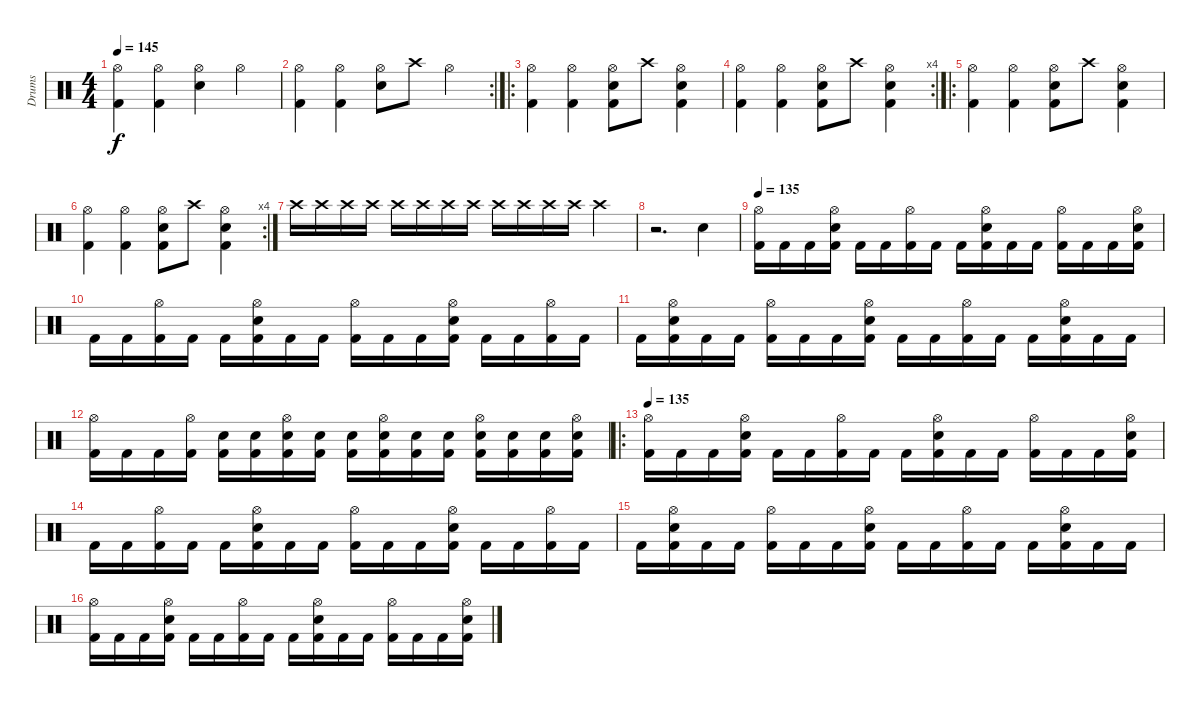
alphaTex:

\track ("Drums" "Drums") {instrument percussion}
\staff {score}
\articulation defaults
\ts (4 4)
\tempo 145
\clef neutral
\ks c
("Hi-Hat (open)" "Kick (hit) 2").4{dy f} ("Hi-Hat (open)" "Kick (hit) 2").4 ("Hi-Hat (open)" "Electric Snare (hit)").4 "Hi-Hat (open)".4 |
\rc 2
("Hi-Hat (open)" "Kick (hit) 2").4 ("Hi-Hat (open)" "Kick (hit) 2").4 ("Hi-Hat (open)" "Electric Snare (hit)").8 "Crash high (hit)".8 "Hi-Hat (open)".4 |
\ro
("Hi-Hat (open)" "Kick (hit) 2").4 ("Hi-Hat (open)" "Kick (hit) 2").4 ("Hi-Hat (open)" "Electric Snare (hit)" "Kick (hit) 2").8 "Crash high (hit)".8 ("Hi-Hat (open)" "Electric Snare (hit)" "Kick (hit) 2").4 |
\rc 4
("Hi-Hat (open)" "Kick (hit) 2").4 ("Hi-Hat (open)" "Kick (hit) 2").4 ("Hi-Hat (open)" "Electric Snare (hit)" "Kick (hit) 2").8 "Crash high (hit)".8 ("Hi-Hat (open)" "Electric Snare (hit)" "Kick (hit) 2").4 |
\ro
("Hi-Hat (open)" "Kick (hit) 2").4 ("Hi-Hat (open)" "Kick (hit) 2").4 ("Hi-Hat (open)" "Electric Snare (hit)" "Kick (hit) 2").8 "Crash high (hit)".8 ("Hi-Hat (open)" "Electric Snare (hit)" "Kick (hit) 2").4 |
\rc 4
("Hi-Hat (open)" "Kick (hit) 2").4 ("Hi-Hat (open)" "Kick (hit) 2").4 ("Hi-Hat (open)" "Electric Snare (hit)" "Kick (hit) 2").8 "Crash high (hit)".8 ("Hi-Hat (open)" "Electric Snare (hit)" "Kick (hit) 2").4 |
"Crash high (hit)".16 "Crash high (hit)".16 "Crash high (hit)".16 "Crash high (hit)".16 "Crash high (hit)".16 "Crash high (hit)".16 "Crash high (hit)".16 "Crash high (hit)".16 "Crash high (hit)".16 "Crash high (hit)".16 "Crash high (hit)".16 "Crash high (hit)".16 "Crash high (hit)".4 |
r.2{d} "Electric Snare (hit)".4 |
\tempo 135
("Kick (hit) 2" "Hi-Hat (open)").16 "Kick (hit) 2".16 "Kick (hit) 2".16 ("Kick (hit) 2" "Electric Snare (hit)" "Hi-Hat (open)").16 "Kick (hit) 2".16 "Kick (hit) 2".16 ("Kick (hit) 2" "Hi-Hat (open)").16 "Kick (hit) 2".16 "Kick (hit) 2".16 ("Kick (hit) 2" "Electric Snare (hit)" "Hi-Hat (open)").16 "Kick (hit) 2".16 "Kick (hit) 2".16 ("Kick (hit) 2" "Hi-Hat (open)").16 "Kick (hit) 2".16 "Kick (hit) 2".16 ("Kick (hit) 2" "Electric Snare (hit)" "Hi-Hat (open)").16 |
"Kick (hit) 2".16 "Kick (hit) 2".16 ("Kick (hit) 2" "Hi-Hat (open)").16 "Kick (hit) 2".16 "Kick (hit) 2".16 ("Kick (hit) 2" "Electric Snare (hit)" "Hi-Hat (open)").16 "Kick (hit) 2".16 "Kick (hit) 2".16 ("Kick (hit) 2" "Hi-Hat (open)").16 "Kick (hit) 2".16 "Kick (hit) 2".16 ("Kick (hit) 2" "Electric Snare (hit)" "Hi-Hat (open)").16 "Kick (hit) 2".16 "Kick (hit) 2".16 ("Kick (hit) 2" "Hi-Hat (open)").16 "Kick (hit) 2".16 |
"Kick (hit) 2".16 ("Kick (hit) 2" "Electric Snare (hit)" "Hi-Hat (open)").16 "Kick (hit) 2".16 "Kick (hit) 2".16 ("Kick (hit) 2" "Hi-Hat (open)").16 "Kick (hit) 2".16 "Kick (hit) 2".16 ("Kick (hit) 2" "Electric Snare (hit)" "Hi-Hat (open)").16 "Kick (hit) 2".16 "Kick (hit) 2".16 ("Kick (hit) 2" "Hi-Hat (open)").16 "Kick (hit) 2".16 "Kick (hit) 2".16 ("Kick (hit) 2" "Electric Snare (hit)" "Hi-Hat (open)").16 "Kick (hit) 2".16 "Kick (hit) 2".16 |
("Kick (hit) 2" "Hi-Hat (open)").16 "Kick (hit) 2".16 "Kick (hit) 2".16 ("Kick (hit) 2" "Hi-Hat (open)").16 ("Kick (hit) 2" "Electric Snare (hit)").16 ("Kick (hit) 2" "Electric Snare (hit)").16 ("Kick (hit) 2" "Electric Snare (hit)" "Hi-Hat (open)").16 ("Kick (hit) 2" "Electric Snare (hit)").16 ("Kick (hit) 2" "Electric Snare (hit)").16 ("Kick (hit) 2" "Electric Snare (hit)" "Hi-Hat (open)").16 ("Kick (hit) 2" "Electric Snare (hit)").16 ("Kick (hit) 2" "Electric Snare (hit)").16 ("Kick (hit) 2" "Electric Snare (hit)" "Hi-Hat (open)").16 ("Kick (hit) 2" "Electric Snare (hit)").16 ("Kick (hit) 2" "Electric Snare (hit)").16 ("Kick (hit) 2" "Hi-Hat (open)" "Electric Snare (hit)").16 |
\ro
\tempo 135
("Kick (hit) 2" "Hi-Hat (open)").16 "Kick (hit) 2".16 "Kick (hit) 2".16 ("Kick (hit) 2" "Electric Snare (hit)" "Hi-Hat (open)").16 "Kick (hit) 2".16 "Kick (hit) 2".16 ("Kick (hit) 2" "Hi-Hat (open)").16 "Kick (hit) 2".16 "Kick (hit) 2".16 ("Kick (hit) 2" "Electric Snare (hit)" "Hi-Hat (open)").16 "Kick (hit) 2".16 "Kick (hit) 2".16 ("Kick (hit) 2" "Hi-Hat (open)").16 "Kick (hit) 2".16 "Kick (hit) 2".16 ("Kick (hit) 2" "Electric Snare (hit)" "Hi-Hat (open)").16 |
"Kick (hit) 2".16 "Kick (hit) 2".16 ("Kick (hit) 2" "Hi-Hat (open)").16 "Kick (hit) 2".16 "Kick (hit) 2".16 ("Kick (hit) 2" "Electric Snare (hit)" "Hi-Hat (open)").16 "Kick (hit) 2".16 "Kick (hit) 2".16 ("Kick (hit) 2" "Hi-Hat (open)").16 "Kick (hit) 2".16 "Kick (hit) 2".16 ("Kick (hit) 2" "Electric Snare (hit)" "Hi-Hat (open)").16 "Kick (hit) 2".16 "Kick (hit) 2".16 ("Kick (hit) 2" "Hi-Hat (open)").16 "Kick (hit) 2".16 |
"Kick (hit) 2".16 ("Kick (hit) 2" "Electric Snare (hit)" "Hi-Hat (open)").16 "Kick (hit) 2".16 "Kick (hit) 2".16 ("Kick (hit) 2" "Hi-Hat (open)").16 "Kick (hit) 2".16 "Kick (hit) 2".16 ("Kick (hit) 2" "Electric Snare (hit)" "Hi-Hat (open)").16 "Kick (hit) 2".16 "Kick (hit) 2".16 ("Kick (hit) 2" "Hi-Hat (open)").16 "Kick (hit) 2".16 "Kick (hit) 2".16 ("Kick (hit) 2" "Electric Snare (hit)" "Hi-Hat (open)").16 "Kick (hit) 2".16 "Kick (hit) 2".16 |
("Kick (hit) 2" "Hi-Hat (open)").16 "Kick (hit) 2".16 "Kick (hit) 2".16 ("Kick (hit) 2" "Electric Snare (hit)" "Hi-Hat (open)").16 "Kick (hit) 2".16 "Kick (hit) 2".16 ("Kick (hit) 2" "Hi-Hat (open)").16 "Kick (hit) 2".16 "Kick (hit) 2".16 ("Kick (hit) 2" "Electric Snare (hit)" "Hi-Hat (open)").16 "Kick (hit) 2".16 "Kick (hit) 2".16 ("Kick (hit) 2" "Hi-Hat (open)").16 "Kick (hit) 2".16 "Kick (hit) 2".16 ("Kick (hit) 2" "Hi-Hat (open)" "Electric Snare (hit)").16
